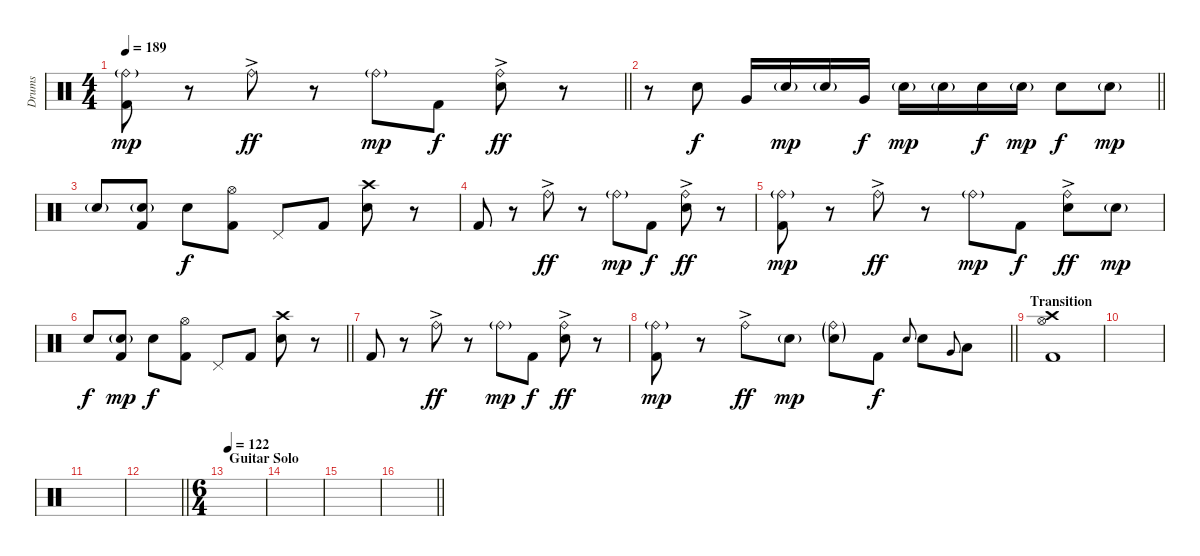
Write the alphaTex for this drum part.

\track ("Drums" "Drums") {instrument percussion}
\staff {score}
\articulation defaults
\ts (4 4)
\tempo 189
\clef neutral
\barLineRight lightlight
\ks c
("Ride (bell)"{g} "Kick (hit) 2").8{dy mp} r.8 "Ride (bell)"{ac}.8{dy ff} r.8 "Ride (bell)"{g}.8{dy mp} "Kick (hit) 2".8{dy f} ("Ride (bell)"{ac} "Snare (hit) 2").8{dy ff} r.8 |
\barLineRight lightlight
r.8 "Snare (hit) 2".8{dy f} "Very Low Tom (hit)".16 "Electric Snare (hit)"{g}.16{dy mp} "Electric Snare (hit)"{g}.16 "Very Low Tom (hit)".16{dy f} "Electric Snare (hit)"{g}.16{dy mp} "Electric Snare (hit)"{g}.16 "Electric Snare (hit)".16{dy f} "Electric Snare (hit)"{g}.16{dy mp} "Snare (hit) 2".8{dy f} "Electric Snare (hit)"{g}.8{dy mp} |
\section ("" "")
"Electric Snare (hit)"{g}.8 ("Electric Snare (hit)"{g} "Kick (hit) 2").8 "Snare (hit) 2".8{dy f} ("Hi-Hat (open)" "Kick (hit) 2").8 "Pedal Hi-Hat (hit)".8 "Kick (hit) 2".8 ("Crash high (hit)" "Snare (hit) 2").8 r.8 |
"Kick (hit) 2".8 r.8 "Ride (bell)"{ac}.8{dy ff} r.8 "Ride (bell)"{g}.8{dy mp} "Kick (hit) 2".8{dy f} ("Ride (bell)"{ac} "Snare (hit) 2").8{dy ff} r.8 |
("Ride (bell)"{g} "Kick (hit) 2").8{dy mp} r.8 "Ride (bell)"{ac}.8{dy ff} r.8 "Ride (bell)"{g}.8{dy mp} "Kick (hit) 2".8{dy f} ("Ride (bell)"{ac} "Snare (hit) 2").8{dy ff} "Electric Snare (hit)"{g}.8{dy mp} |
\barLineRight lightlight "Electric Snare (hit)".8{dy f}
("Electric Snare (hit)"{g} "Kick (hit) 2").8{dy mp} "Snare (hit) 2".8{dy f} ("Hi-Hat (open)" "Kick (hit) 2").8 "Pedal Hi-Hat (hit)".8 "Kick (hit) 2".8 ("Crash high (hit)" "Snare (hit) 2").8 r.8 |
\section ("" "")
"Kick (hit) 2".8 r.8 "Ride (bell)"{ac}.8{dy ff} r.8 "Ride (bell)"{g}.8{dy mp} "Kick (hit) 2".8{dy f} ("Ride (bell)"{ac} "Snare (hit) 2").8{dy ff} r.8 |
\barLineRight lightlight
("Ride (bell)"{g} "Kick (hit) 2").8{dy mp} r.8 "Ride (bell)"{ac}.8{dy ff} "Electric Snare (hit)"{g}.8{dy mp} ("Ride (bell)"{g} "Electric Snare (hit)"{g}).8 "Kick (hit) 2".8{dy f} "Electric Snare (hit)".8{gr onbeat} "Snare (hit) 2".8 "Very Low Tom (hit)".8{gr onbeat} "Low Tom (hit)".8 |
\section ("" "Transition")
("Crash high (hit)" "Hi-Hat (open)" "Kick (hit) 2").1 |
|
|
\barLineRight lightlight
|
\ts (6 4)
\section ("" "Guitar Solo")
\tempo 122
|
|
|
\barLineRight lightlight
